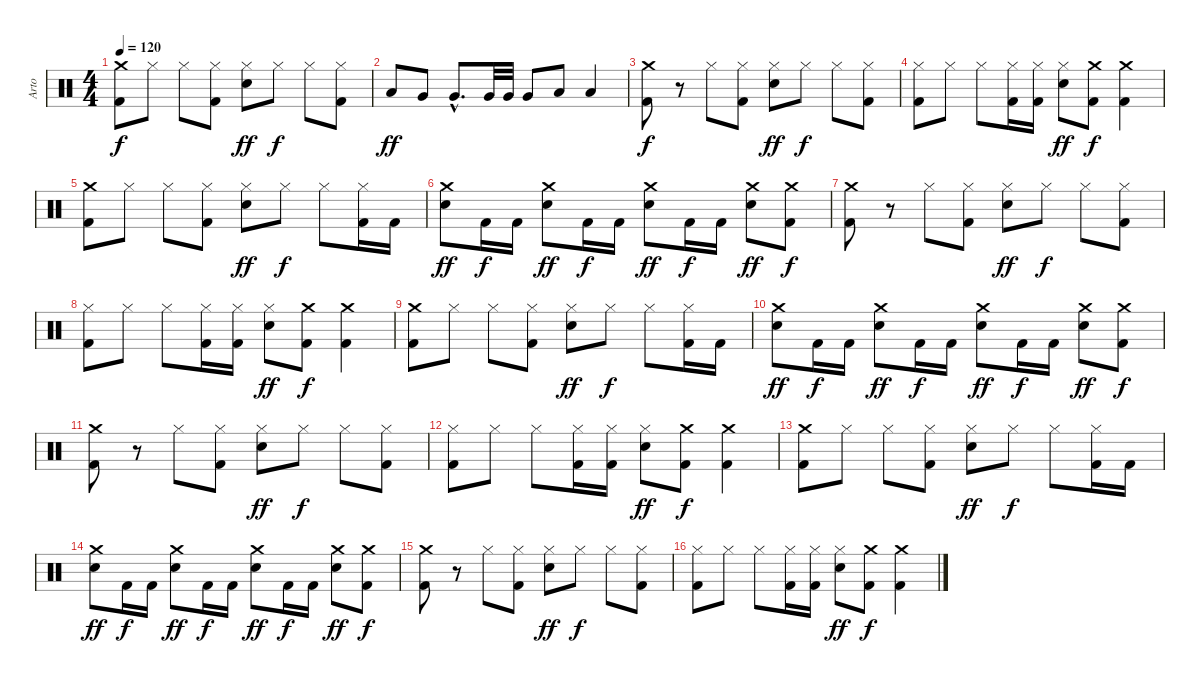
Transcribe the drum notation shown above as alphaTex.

\track ("Arto" "Arto") {instrument percussion}
\staff {score}
\articulation defaults
\ts (4 4)
\tempo 120
\clef neutral
\ks c
("Crash medium (hit)" "Kick (hit) 2").8{dy f} "Hi-Hat (closed)".8 "Hi-Hat (closed)".8 ("Hi-Hat (closed)" "Kick (hit) 2").8 ("Hi-Hat (closed)" "Snare (hit) 2").8{dy ff} "Hi-Hat (closed)".8{dy f} "Hi-Hat (closed)".8 ("Hi-Hat (closed)" "Kick (hit) 2").8 |
"Low Tom (hit)".8{dy ff} "Very Low Tom (hit)".8 "Very Low Tom (hit)"{hac}.8{d} "Very Low Tom (hit)".32 "Very Low Tom (hit)".32 "Very Low Tom (hit)".8 "Low Floor Tom (hit)".8 "Low Floor Tom (hit)".4 |
("Crash medium (hit)" "Kick (hit) 2").8{dy f} r.8 "Hi-Hat (closed)".8 ("Hi-Hat (closed)" "Kick (hit) 2").8 ("Hi-Hat (closed)" "Snare (hit) 2").8{dy ff} "Hi-Hat (closed)".8{dy f} "Hi-Hat (closed)".8 ("Hi-Hat (closed)" "Kick (hit) 2").8 |
("Hi-Hat (closed)" "Kick (hit) 2").8 "Hi-Hat (closed)".8 "Hi-Hat (closed)".8 ("Hi-Hat (closed)" "Kick (hit) 2").16 ("Hi-Hat (closed)" "Kick (hit) 2").16 ("Hi-Hat (closed)" "Snare (hit) 2").8{dy ff} ("Crash medium (hit)" "Kick (hit) 2").8{dy f} ("Crash medium (hit)" "Kick (hit) 2").4 |
("Crash medium (hit)" "Kick (hit) 2").8 "Hi-Hat (closed)".8 "Hi-Hat (closed)".8 ("Hi-Hat (closed)" "Kick (hit) 2").8 ("Hi-Hat (closed)" "Snare (hit) 2").8{dy ff} "Hi-Hat (closed)".8{dy f} "Hi-Hat (closed)".8 ("Hi-Hat (closed)" "Kick (hit) 2").16 "Kick (hit) 2".16 |
("Crash medium (hit)" "Snare (hit) 2").8{dy ff} "Kick (hit) 2".16{dy f} "Kick (hit) 2".16 ("Crash medium (hit)" "Snare (hit) 2").8{dy ff} "Kick (hit) 2".16{dy f} "Kick (hit) 2".16 ("Crash medium (hit)" "Snare (hit) 2").8{dy ff} "Kick (hit) 2".16{dy f} "Kick (hit) 2".16 ("Crash medium (hit)" "Snare (hit) 2").8{dy ff} ("Crash medium (hit)" "Kick (hit) 2").8{dy f} |
("Crash medium (hit)" "Kick (hit) 2").8 r.8 "Hi-Hat (closed)".8 ("Hi-Hat (closed)" "Kick (hit) 2").8 ("Hi-Hat (closed)" "Snare (hit) 2").8{dy ff} "Hi-Hat (closed)".8{dy f} "Hi-Hat (closed)".8 ("Hi-Hat (closed)" "Kick (hit) 2").8 |
("Hi-Hat (closed)" "Kick (hit) 2").8 "Hi-Hat (closed)".8 "Hi-Hat (closed)".8 ("Hi-Hat (closed)" "Kick (hit) 2").16 ("Hi-Hat (closed)" "Kick (hit) 2").16 ("Hi-Hat (closed)" "Snare (hit) 2").8{dy ff} ("Crash medium (hit)" "Kick (hit) 2").8{dy f} ("Crash medium (hit)" "Kick (hit) 2").4 |
("Crash medium (hit)" "Kick (hit) 2").8 "Hi-Hat (closed)".8 "Hi-Hat (closed)".8 ("Hi-Hat (closed)" "Kick (hit) 2").8 ("Hi-Hat (closed)" "Snare (hit) 2").8{dy ff} "Hi-Hat (closed)".8{dy f} "Hi-Hat (closed)".8 ("Hi-Hat (closed)" "Kick (hit) 2").16 "Kick (hit) 2".16 |
("Crash medium (hit)" "Snare (hit) 2").8{dy ff} "Kick (hit) 2".16{dy f} "Kick (hit) 2".16 ("Crash medium (hit)" "Snare (hit) 2").8{dy ff} "Kick (hit) 2".16{dy f} "Kick (hit) 2".16 ("Crash medium (hit)" "Snare (hit) 2").8{dy ff} "Kick (hit) 2".16{dy f} "Kick (hit) 2".16 ("Crash medium (hit)" "Snare (hit) 2").8{dy ff} ("Crash medium (hit)" "Kick (hit) 2").8{dy f} |
("Crash medium (hit)" "Kick (hit) 2").8 r.8 "Hi-Hat (closed)".8 ("Hi-Hat (closed)" "Kick (hit) 2").8 ("Hi-Hat (closed)" "Snare (hit) 2").8{dy ff} "Hi-Hat (closed)".8{dy f} "Hi-Hat (closed)".8 ("Hi-Hat (closed)" "Kick (hit) 2").8 |
("Hi-Hat (closed)" "Kick (hit) 2").8 "Hi-Hat (closed)".8 "Hi-Hat (closed)".8 ("Hi-Hat (closed)" "Kick (hit) 2").16 ("Hi-Hat (closed)" "Kick (hit) 2").16 ("Hi-Hat (closed)" "Snare (hit) 2").8{dy ff} ("Crash medium (hit)" "Kick (hit) 2").8{dy f} ("Crash medium (hit)" "Kick (hit) 2").4 |
("Crash medium (hit)" "Kick (hit) 2").8 "Hi-Hat (closed)".8 "Hi-Hat (closed)".8 ("Hi-Hat (closed)" "Kick (hit) 2").8 ("Hi-Hat (closed)" "Snare (hit) 2").8{dy ff} "Hi-Hat (closed)".8{dy f} "Hi-Hat (closed)".8 ("Hi-Hat (closed)" "Kick (hit) 2").16 "Kick (hit) 2".16 |
("Crash medium (hit)" "Snare (hit) 2").8{dy ff} "Kick (hit) 2".16{dy f} "Kick (hit) 2".16 ("Crash medium (hit)" "Snare (hit) 2").8{dy ff} "Kick (hit) 2".16{dy f} "Kick (hit) 2".16 ("Crash medium (hit)" "Snare (hit) 2").8{dy ff} "Kick (hit) 2".16{dy f} "Kick (hit) 2".16 ("Crash medium (hit)" "Snare (hit) 2").8{dy ff} ("Crash medium (hit)" "Kick (hit) 2").8{dy f} |
("Crash medium (hit)" "Kick (hit) 2").8 r.8 "Hi-Hat (closed)".8 ("Hi-Hat (closed)" "Kick (hit) 2").8 ("Hi-Hat (closed)" "Snare (hit) 2").8{dy ff} "Hi-Hat (closed)".8{dy f} "Hi-Hat (closed)".8 ("Hi-Hat (closed)" "Kick (hit) 2").8 |
("Hi-Hat (closed)" "Kick (hit) 2").8 "Hi-Hat (closed)".8 "Hi-Hat (closed)".8 ("Hi-Hat (closed)" "Kick (hit) 2").16 ("Hi-Hat (closed)" "Kick (hit) 2").16 ("Hi-Hat (closed)" "Snare (hit) 2").8{dy ff} ("Crash medium (hit)" "Kick (hit) 2").8{dy f} ("Crash medium (hit)" "Kick (hit) 2").4
